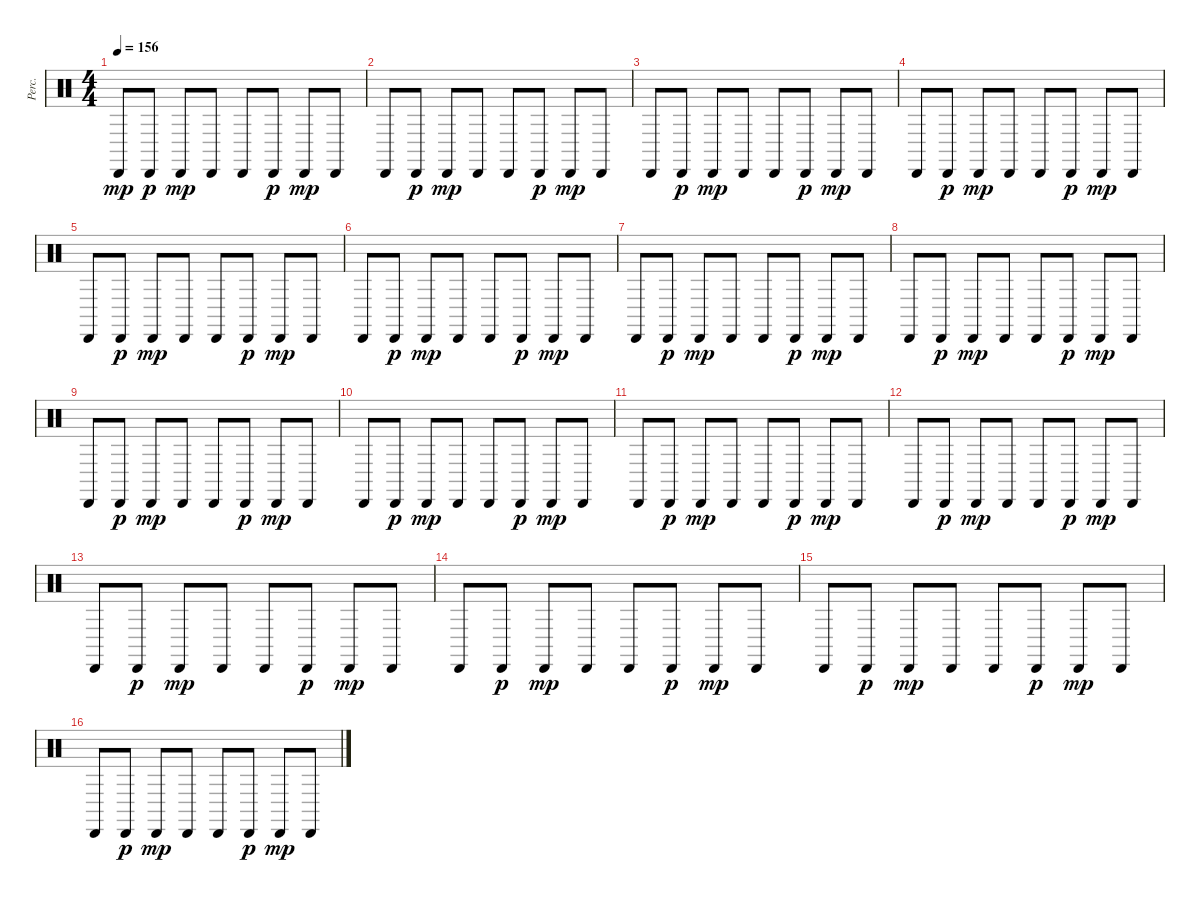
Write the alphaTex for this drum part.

\track ("Perc." "Perc.") {instrument percussion}
\staff {score}
\articulation defaults
\ts (4 4)
\tempo 156
\clef neutral
\ks c "Cabasa (hit)".8{dy mp} "Cabasa (hit)".8{dy p} "Cabasa (hit)".8{dy mp} "Cabasa (hit)".8 "Cabasa (hit)".8 "Cabasa (hit)".8{dy p} "Cabasa (hit)".8{dy mp} "Cabasa (hit)".8
|
"Cabasa (hit)".8 "Cabasa (hit)".8{dy p} "Cabasa (hit)".8{dy mp} "Cabasa (hit)".8 "Cabasa (hit)".8 "Cabasa (hit)".8{dy p} "Cabasa (hit)".8{dy mp} "Cabasa (hit)".8 |
"Cabasa (hit)".8 "Cabasa (hit)".8{dy p} "Cabasa (hit)".8{dy mp} "Cabasa (hit)".8 "Cabasa (hit)".8 "Cabasa (hit)".8{dy p} "Cabasa (hit)".8{dy mp} "Cabasa (hit)".8 |
"Cabasa (hit)".8 "Cabasa (hit)".8{dy p} "Cabasa (hit)".8{dy mp} "Cabasa (hit)".8 "Cabasa (hit)".8 "Cabasa (hit)".8{dy p} "Cabasa (hit)".8{dy mp} "Cabasa (hit)".8 |
"Cabasa (hit)".8 "Cabasa (hit)".8{dy p} "Cabasa (hit)".8{dy mp} "Cabasa (hit)".8 "Cabasa (hit)".8 "Cabasa (hit)".8{dy p} "Cabasa (hit)".8{dy mp} "Cabasa (hit)".8 |
"Cabasa (hit)".8 "Cabasa (hit)".8{dy p} "Cabasa (hit)".8{dy mp} "Cabasa (hit)".8 "Cabasa (hit)".8 "Cabasa (hit)".8{dy p} "Cabasa (hit)".8{dy mp} "Cabasa (hit)".8 |
"Cabasa (hit)".8 "Cabasa (hit)".8{dy p} "Cabasa (hit)".8{dy mp} "Cabasa (hit)".8 "Cabasa (hit)".8 "Cabasa (hit)".8{dy p} "Cabasa (hit)".8{dy mp} "Cabasa (hit)".8 |
"Cabasa (hit)".8 "Cabasa (hit)".8{dy p} "Cabasa (hit)".8{dy mp} "Cabasa (hit)".8 "Cabasa (hit)".8 "Cabasa (hit)".8{dy p} "Cabasa (hit)".8{dy mp} "Cabasa (hit)".8 |
"Cabasa (hit)".8 "Cabasa (hit)".8{dy p} "Cabasa (hit)".8{dy mp} "Cabasa (hit)".8 "Cabasa (hit)".8 "Cabasa (hit)".8{dy p} "Cabasa (hit)".8{dy mp} "Cabasa (hit)".8 |
"Cabasa (hit)".8 "Cabasa (hit)".8{dy p} "Cabasa (hit)".8{dy mp} "Cabasa (hit)".8 "Cabasa (hit)".8 "Cabasa (hit)".8{dy p} "Cabasa (hit)".8{dy mp} "Cabasa (hit)".8 |
"Cabasa (hit)".8 "Cabasa (hit)".8{dy p} "Cabasa (hit)".8{dy mp} "Cabasa (hit)".8 "Cabasa (hit)".8 "Cabasa (hit)".8{dy p} "Cabasa (hit)".8{dy mp} "Cabasa (hit)".8 |
"Cabasa (hit)".8 "Cabasa (hit)".8{dy p} "Cabasa (hit)".8{dy mp} "Cabasa (hit)".8 "Cabasa (hit)".8 "Cabasa (hit)".8{dy p} "Cabasa (hit)".8{dy mp} "Cabasa (hit)".8 |
"Cabasa (hit)".8 "Cabasa (hit)".8{dy p} "Cabasa (hit)".8{dy mp} "Cabasa (hit)".8 "Cabasa (hit)".8 "Cabasa (hit)".8{dy p} "Cabasa (hit)".8{dy mp} "Cabasa (hit)".8 |
"Cabasa (hit)".8 "Cabasa (hit)".8{dy p} "Cabasa (hit)".8{dy mp} "Cabasa (hit)".8 "Cabasa (hit)".8 "Cabasa (hit)".8{dy p} "Cabasa (hit)".8{dy mp} "Cabasa (hit)".8 |
"Cabasa (hit)".8 "Cabasa (hit)".8{dy p} "Cabasa (hit)".8{dy mp} "Cabasa (hit)".8 "Cabasa (hit)".8 "Cabasa (hit)".8{dy p} "Cabasa (hit)".8{dy mp} "Cabasa (hit)".8 |
"Cabasa (hit)".8 "Cabasa (hit)".8{dy p} "Cabasa (hit)".8{dy mp} "Cabasa (hit)".8 "Cabasa (hit)".8 "Cabasa (hit)".8{dy p} "Cabasa (hit)".8{dy mp} "Cabasa (hit)".8
